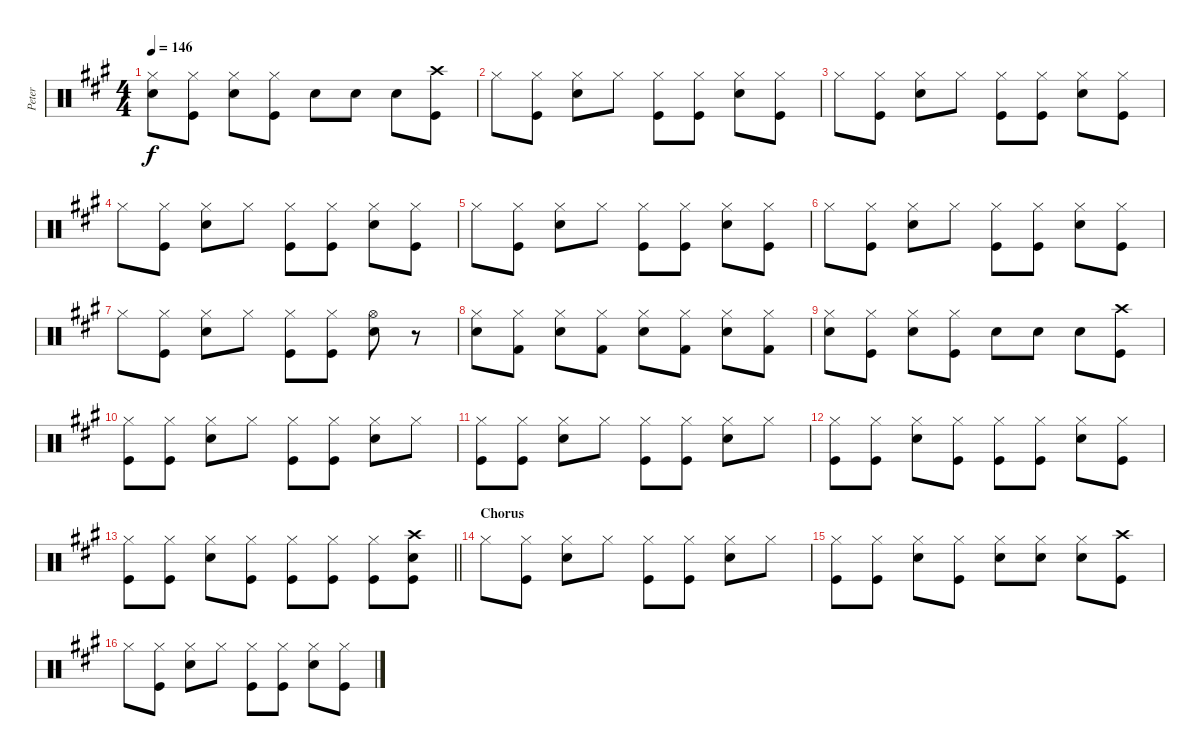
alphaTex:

\track ("Peter" "Peter") {instrument percussion}
\staff {score}
\articulation defaults
\ts (4 4)
\tempo 146
\clef neutral
\ks a
("Hi-Hat (closed)" "Snare (hit) 2").8{dy f} ("Hi-Hat (closed)" "Kick (hit)").8 ("Hi-Hat (closed)" "Snare (hit) 2").8 ("Hi-Hat (closed)" "Kick (hit)").8 "Snare (hit) 2".8 "Snare (hit) 2".8 "Snare (hit) 2".8 ("Crash high (hit)" "Kick (hit)").8 |
"Hi-Hat (closed)".8 ("Hi-Hat (closed)" "Kick (hit)").8 ("Hi-Hat (closed)" "Snare (hit) 2").8 "Hi-Hat (closed)".8 ("Hi-Hat (closed)" "Kick (hit)").8 ("Hi-Hat (closed)" "Kick (hit)").8 ("Hi-Hat (closed)" "Snare (hit) 2").8 ("Hi-Hat (closed)" "Kick (hit)").8 |
"Hi-Hat (closed)".8 ("Hi-Hat (closed)" "Kick (hit)").8 ("Hi-Hat (closed)" "Snare (hit) 2").8 "Hi-Hat (closed)".8 ("Hi-Hat (closed)" "Kick (hit)").8 ("Hi-Hat (closed)" "Kick (hit)").8 ("Hi-Hat (closed)" "Snare (hit) 2").8 ("Hi-Hat (closed)" "Kick (hit)").8 |
"Hi-Hat (closed)".8 ("Hi-Hat (closed)" "Kick (hit)").8 ("Hi-Hat (closed)" "Snare (hit) 2").8 "Hi-Hat (closed)".8 ("Hi-Hat (closed)" "Kick (hit)").8 ("Hi-Hat (closed)" "Kick (hit)").8 ("Hi-Hat (closed)" "Snare (hit) 2").8 ("Hi-Hat (closed)" "Kick (hit)").8 |
"Hi-Hat (closed)".8 ("Hi-Hat (closed)" "Kick (hit)").8 ("Hi-Hat (closed)" "Snare (hit) 2").8 "Hi-Hat (closed)".8 ("Hi-Hat (closed)" "Kick (hit)").8 ("Hi-Hat (closed)" "Kick (hit)").8 ("Hi-Hat (closed)" "Snare (hit) 2").8 ("Hi-Hat (closed)" "Kick (hit)").8 |
"Hi-Hat (closed)".8 ("Hi-Hat (closed)" "Kick (hit)").8 ("Hi-Hat (closed)" "Snare (hit) 2").8 "Hi-Hat (closed)".8 ("Hi-Hat (closed)" "Kick (hit)").8 ("Hi-Hat (closed)" "Kick (hit)").8 ("Hi-Hat (closed)" "Snare (hit) 2").8 ("Hi-Hat (closed)" "Kick (hit)").8 |
"Hi-Hat (closed)".8 ("Hi-Hat (closed)" "Kick (hit)").8 ("Hi-Hat (closed)" "Snare (hit) 2").8 "Hi-Hat (closed)".8 ("Hi-Hat (closed)" "Kick (hit)").8 ("Hi-Hat (closed)" "Kick (hit)").8 ("Hi-Hat (open)" "Snare (hit) 2").8 r.8 |
("Hi-Hat (closed)" "Snare (hit) 2").8 ("Hi-Hat (closed)" "Kick (hit) 2").8 ("Hi-Hat (closed)" "Snare (hit) 2").8 ("Hi-Hat (closed)" "Kick (hit) 2").8 ("Hi-Hat (closed)" "Snare (hit) 2").8 ("Hi-Hat (closed)" "Kick (hit) 2").8 ("Hi-Hat (closed)" "Snare (hit) 2").8 ("Hi-Hat (closed)" "Kick (hit) 2").8 |
("Hi-Hat (closed)" "Snare (hit) 2").8 ("Hi-Hat (closed)" "Kick (hit)").8 ("Hi-Hat (closed)" "Snare (hit) 2").8 ("Hi-Hat (closed)" "Kick (hit)").8 "Snare (hit) 2".8 "Snare (hit) 2".8 "Snare (hit) 2".8 ("Crash high (hit)" "Kick (hit)").8 |
("Hi-Hat (closed)" "Kick (hit)").8 ("Hi-Hat (closed)" "Kick (hit)").8 ("Hi-Hat (closed)" "Snare (hit) 2").8 "Hi-Hat (closed)".8 ("Hi-Hat (closed)" "Kick (hit)").8 ("Hi-Hat (closed)" "Kick (hit)").8 ("Hi-Hat (closed)" "Snare (hit) 2").8 "Hi-Hat (closed)".8 |
("Hi-Hat (closed)" "Kick (hit)").8 ("Hi-Hat (closed)" "Kick (hit)").8 ("Hi-Hat (closed)" "Snare (hit) 2").8 "Hi-Hat (closed)".8 ("Hi-Hat (closed)" "Kick (hit)").8 ("Hi-Hat (closed)" "Kick (hit)").8 ("Hi-Hat (closed)" "Snare (hit) 2").8 "Hi-Hat (closed)".8 |
("Hi-Hat (closed)" "Kick (hit)").8 ("Hi-Hat (closed)" "Kick (hit)").8 ("Hi-Hat (closed)" "Snare (hit) 2").8 ("Hi-Hat (closed)" "Kick (hit)").8 ("Hi-Hat (closed)" "Kick (hit)").8 ("Hi-Hat (closed)" "Kick (hit)").8 ("Hi-Hat (closed)" "Snare (hit) 2").8 ("Hi-Hat (closed)" "Kick (hit)").8 |
\barLineRight lightlight
("Hi-Hat (closed)" "Kick (hit)").8 ("Hi-Hat (closed)" "Kick (hit)").8 ("Hi-Hat (closed)" "Snare (hit) 2").8 ("Hi-Hat (closed)" "Kick (hit)").8 ("Hi-Hat (closed)" "Kick (hit)").8 ("Hi-Hat (closed)" "Kick (hit)").8 ("Hi-Hat (closed)" "Kick (hit)").8 ("Crash high (hit)" "Snare (hit) 2" "Kick (hit)").8 |
\section ("" "Chorus")
"Hi-Hat (closed)".8 ("Hi-Hat (closed)" "Kick (hit)").8 ("Hi-Hat (closed)" "Snare (hit) 2").8 "Hi-Hat (closed)".8 ("Hi-Hat (closed)" "Kick (hit)").8 ("Hi-Hat (closed)" "Kick (hit)").8 ("Hi-Hat (closed)" "Snare (hit) 2").8 "Hi-Hat (closed)".8 |
("Hi-Hat (closed)" "Kick (hit)").8 ("Hi-Hat (closed)" "Kick (hit)").8 ("Hi-Hat (closed)" "Snare (hit) 2").8 ("Hi-Hat (closed)" "Kick (hit)").8 ("Hi-Hat (closed)" "Snare (hit) 2").8 ("Hi-Hat (closed)" "Snare (hit) 2").8 ("Hi-Hat (closed)" "Snare (hit) 2").8 ("Crash high (hit)" "Kick (hit)").8 |
"Hi-Hat (closed)".8 ("Hi-Hat (closed)" "Kick (hit)").8 ("Hi-Hat (closed)" "Snare (hit) 2").8 "Hi-Hat (closed)".8 ("Hi-Hat (closed)" "Kick (hit)").8 ("Hi-Hat (closed)" "Kick (hit)").8 ("Hi-Hat (closed)" "Snare (hit) 2").8 ("Hi-Hat (closed)" "Kick (hit)").8
